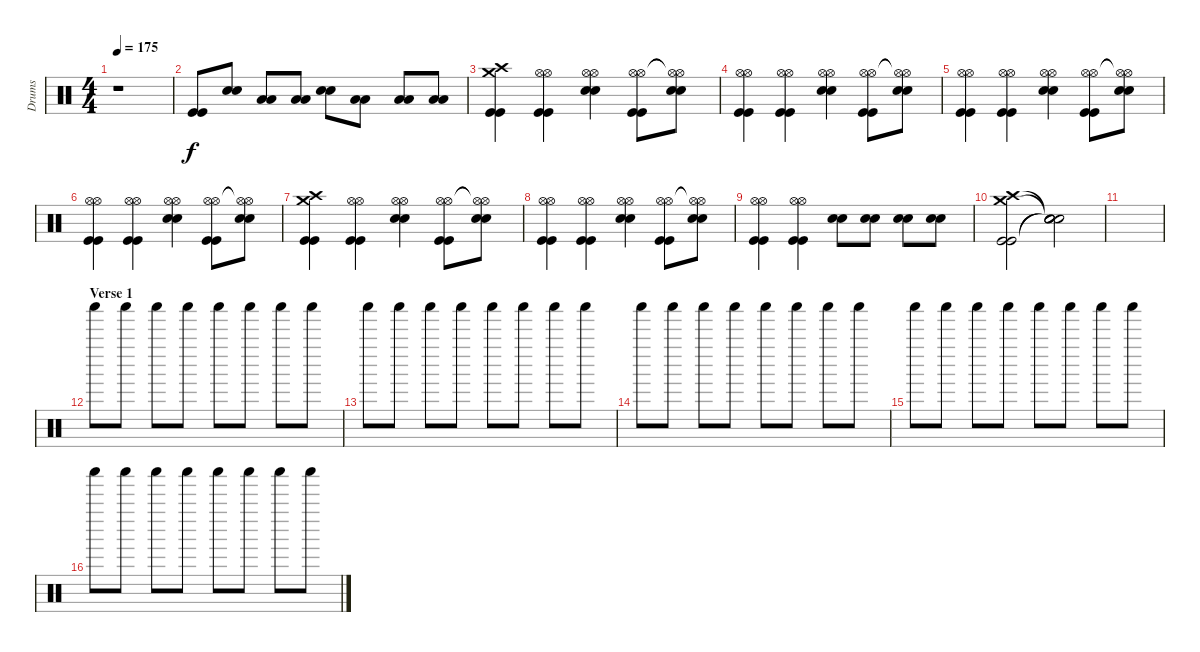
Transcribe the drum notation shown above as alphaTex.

\track ("Drums" "Drums") {instrument percussion}
\staff {score}
\articulation defaults
\ts (4 4)
\tempo 175
\clef neutral
\ks c
r.1{dy f} |
("Kick (hit)" "Kick (hit)").8 ("Electric Snare (hit)" "Electric Snare (hit)").8 ("Low Tom (hit)" "Low Tom (hit)").8 ("Low Tom (hit)" "Low Tom (hit)").8 ("Electric Snare (hit)" "Electric Snare (hit)").8 ("Low Tom (hit)" "Low Tom (hit)").8 ("Low Tom (hit)" "Low Tom (hit)").8 ("Low Tom (hit)" "Low Tom (hit)").8 |
("Crash high (hit)" "Crash medium (hit)" "Kick (hit)" "Kick (hit)").4 ("Hi-Hat (open)" "Hi-Hat (open)" "Kick (hit)" "Kick (hit)").4 ("Hi-Hat (open)" "Hi-Hat (open)" "Electric Snare (hit)" "Electric Snare (hit)").4 ("Hi-Hat (open)" "Hi-Hat (open)" "Kick (hit)" "Kick (hit)").8 ("Hi-Hat (open)"{t} "Hi-Hat (open)"{t} "Electric Snare (hit)" "Electric Snare (hit)").8 |
("Hi-Hat (open)" "Hi-Hat (open)" "Kick (hit)" "Kick (hit)").4 ("Hi-Hat (open)" "Hi-Hat (open)" "Kick (hit)" "Kick (hit)").4 ("Hi-Hat (open)" "Hi-Hat (open)" "Electric Snare (hit)" "Electric Snare (hit)").4 ("Hi-Hat (open)" "Hi-Hat (open)" "Kick (hit)" "Kick (hit)").8 ("Hi-Hat (open)"{t} "Hi-Hat (open)"{t} "Electric Snare (hit)" "Electric Snare (hit)").8 |
("Hi-Hat (open)" "Hi-Hat (open)" "Kick (hit)" "Kick (hit)").4 ("Hi-Hat (open)" "Hi-Hat (open)" "Kick (hit)" "Kick (hit)").4 ("Hi-Hat (open)" "Hi-Hat (open)" "Electric Snare (hit)" "Electric Snare (hit)").4 ("Hi-Hat (open)" "Hi-Hat (open)" "Kick (hit)" "Kick (hit)").8 ("Hi-Hat (open)"{t} "Hi-Hat (open)"{t} "Electric Snare (hit)" "Electric Snare (hit)").8 |
("Hi-Hat (open)" "Hi-Hat (open)" "Kick (hit)" "Kick (hit)").4 ("Hi-Hat (open)" "Hi-Hat (open)" "Kick (hit)" "Kick (hit)").4 ("Hi-Hat (open)" "Hi-Hat (open)" "Electric Snare (hit)" "Electric Snare (hit)").4 ("Hi-Hat (open)" "Hi-Hat (open)" "Kick (hit)" "Kick (hit)").8 ("Hi-Hat (open)"{t} "Hi-Hat (open)"{t} "Electric Snare (hit)" "Electric Snare (hit)").8 |
("Crash high (hit)" "Crash medium (hit)" "Kick (hit)" "Kick (hit)").4 ("Hi-Hat (open)" "Hi-Hat (open)" "Kick (hit)" "Kick (hit)").4 ("Hi-Hat (open)" "Hi-Hat (open)" "Electric Snare (hit)" "Electric Snare (hit)").4 ("Hi-Hat (open)" "Hi-Hat (open)" "Kick (hit)" "Kick (hit)").8 ("Hi-Hat (open)"{t} "Hi-Hat (open)"{t} "Electric Snare (hit)" "Electric Snare (hit)").8 |
("Hi-Hat (open)" "Hi-Hat (open)" "Kick (hit)" "Kick (hit)").4 ("Hi-Hat (open)" "Hi-Hat (open)" "Kick (hit)" "Kick (hit)").4 ("Hi-Hat (open)" "Hi-Hat (open)" "Electric Snare (hit)" "Electric Snare (hit)").4 ("Hi-Hat (open)" "Hi-Hat (open)" "Kick (hit)" "Kick (hit)").8 ("Hi-Hat (open)"{t} "Hi-Hat (open)"{t} "Electric Snare (hit)" "Electric Snare (hit)").8 |
("Hi-Hat (open)" "Hi-Hat (open)" "Kick (hit)" "Kick (hit)").4 ("Hi-Hat (open)" "Hi-Hat (open)" "Kick (hit)" "Kick (hit)").4 ("Electric Snare (hit)" "Electric Snare (hit)").8 ("Electric Snare (hit)" "Electric Snare (hit)").8 ("Electric Snare (hit)" "Electric Snare (hit)").8 ("Electric Snare (hit)" "Electric Snare (hit)").8 |
("Crash high (hit)" "Crash medium (hit)" "Kick (hit)" "Kick (hit)").2 ("Snare (hit)"{t} "Snare (hit)"{t} "Snare (hit)"{t} "Snare (hit)"{t}).2 |
|
\section ("" "Verse 1")
"Shaker (hit)".8 "Shaker (hit)".8 "Shaker (hit)".8 "Shaker (hit)".8 "Shaker (hit)".8 "Shaker (hit)".8 "Shaker (hit)".8 "Shaker (hit)".8 |
"Shaker (hit)".8 "Shaker (hit)".8 "Shaker (hit)".8 "Shaker (hit)".8 "Shaker (hit)".8 "Shaker (hit)".8 "Shaker (hit)".8 "Shaker (hit)".8 |
"Shaker (hit)".8 "Shaker (hit)".8 "Shaker (hit)".8 "Shaker (hit)".8 "Shaker (hit)".8 "Shaker (hit)".8 "Shaker (hit)".8 "Shaker (hit)".8 |
"Shaker (hit)".8 "Shaker (hit)".8 "Shaker (hit)".8 "Shaker (hit)".8 "Shaker (hit)".8 "Shaker (hit)".8 "Shaker (hit)".8 "Shaker (hit)".8 |
"Shaker (hit)".8 "Shaker (hit)".8 "Shaker (hit)".8 "Shaker (hit)".8 "Shaker (hit)".8 "Shaker (hit)".8 "Shaker (hit)".8 "Shaker (hit)".8
